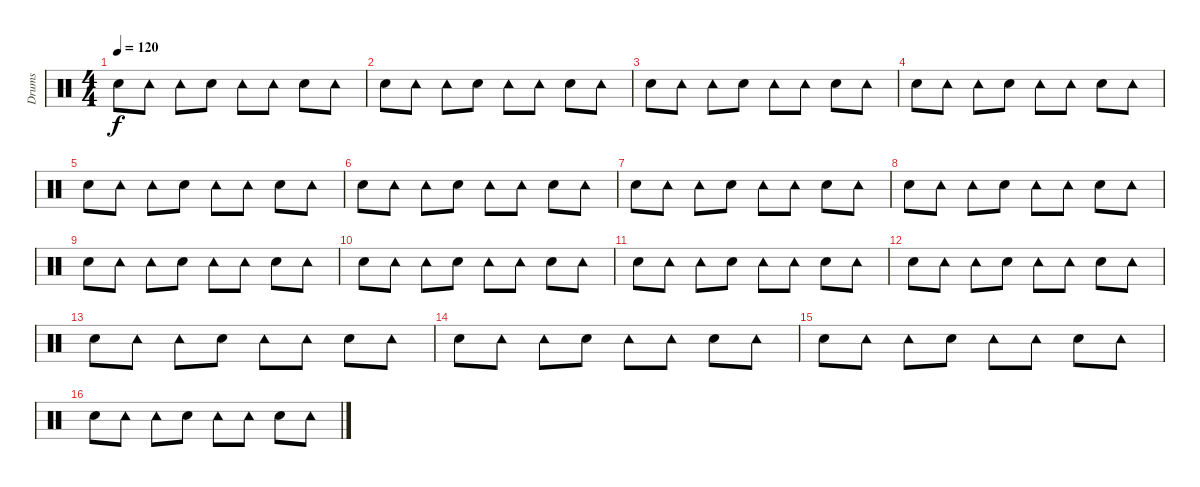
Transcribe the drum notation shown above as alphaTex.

\track ("Drums" "Drums") {instrument percussion}
\staff {score}
\articulation defaults
\ts (4 4)
\tempo 120
\clef neutral
\ks c "Electric Snare (hit)".8{dy f} "Tambourine (hit)".8 "Tambourine (hit)".8 "Electric Snare (hit)".8 "Tambourine (hit)".8 "Tambourine (hit)".8 "Electric Snare (hit)".8 "Tambourine (hit)".8
|
"Electric Snare (hit)".8 "Tambourine (hit)".8 "Tambourine (hit)".8 "Electric Snare (hit)".8 "Tambourine (hit)".8 "Tambourine (hit)".8 "Electric Snare (hit)".8 "Tambourine (hit)".8 |
"Electric Snare (hit)".8 "Tambourine (hit)".8 "Tambourine (hit)".8 "Electric Snare (hit)".8 "Tambourine (hit)".8 "Tambourine (hit)".8 "Electric Snare (hit)".8 "Tambourine (hit)".8 |
"Electric Snare (hit)".8 "Tambourine (hit)".8 "Tambourine (hit)".8 "Electric Snare (hit)".8 "Tambourine (hit)".8 "Tambourine (hit)".8 "Electric Snare (hit)".8 "Tambourine (hit)".8 |
"Electric Snare (hit)".8 "Tambourine (hit)".8 "Tambourine (hit)".8 "Electric Snare (hit)".8 "Tambourine (hit)".8 "Tambourine (hit)".8 "Electric Snare (hit)".8 "Tambourine (hit)".8 |
"Electric Snare (hit)".8 "Tambourine (hit)".8 "Tambourine (hit)".8 "Electric Snare (hit)".8 "Tambourine (hit)".8 "Tambourine (hit)".8 "Electric Snare (hit)".8 "Tambourine (hit)".8 |
"Electric Snare (hit)".8 "Tambourine (hit)".8 "Tambourine (hit)".8 "Electric Snare (hit)".8 "Tambourine (hit)".8 "Tambourine (hit)".8 "Electric Snare (hit)".8 "Tambourine (hit)".8 |
"Electric Snare (hit)".8 "Tambourine (hit)".8 "Tambourine (hit)".8 "Electric Snare (hit)".8 "Tambourine (hit)".8 "Tambourine (hit)".8 "Electric Snare (hit)".8 "Tambourine (hit)".8 |
"Electric Snare (hit)".8 "Tambourine (hit)".8 "Tambourine (hit)".8 "Electric Snare (hit)".8 "Tambourine (hit)".8 "Tambourine (hit)".8 "Electric Snare (hit)".8 "Tambourine (hit)".8 |
"Electric Snare (hit)".8 "Tambourine (hit)".8 "Tambourine (hit)".8 "Electric Snare (hit)".8 "Tambourine (hit)".8 "Tambourine (hit)".8 "Electric Snare (hit)".8 "Tambourine (hit)".8 |
"Electric Snare (hit)".8 "Tambourine (hit)".8 "Tambourine (hit)".8 "Electric Snare (hit)".8 "Tambourine (hit)".8 "Tambourine (hit)".8 "Electric Snare (hit)".8 "Tambourine (hit)".8 |
"Electric Snare (hit)".8 "Tambourine (hit)".8 "Tambourine (hit)".8 "Electric Snare (hit)".8 "Tambourine (hit)".8 "Tambourine (hit)".8 "Electric Snare (hit)".8 "Tambourine (hit)".8 |
"Electric Snare (hit)".8 "Tambourine (hit)".8 "Tambourine (hit)".8 "Electric Snare (hit)".8 "Tambourine (hit)".8 "Tambourine (hit)".8 "Electric Snare (hit)".8 "Tambourine (hit)".8 |
"Electric Snare (hit)".8 "Tambourine (hit)".8 "Tambourine (hit)".8 "Electric Snare (hit)".8 "Tambourine (hit)".8 "Tambourine (hit)".8 "Electric Snare (hit)".8 "Tambourine (hit)".8 |
"Electric Snare (hit)".8 "Tambourine (hit)".8 "Tambourine (hit)".8 "Electric Snare (hit)".8 "Tambourine (hit)".8 "Tambourine (hit)".8 "Electric Snare (hit)".8 "Tambourine (hit)".8 |
"Electric Snare (hit)".8 "Tambourine (hit)".8 "Tambourine (hit)".8 "Electric Snare (hit)".8 "Tambourine (hit)".8 "Tambourine (hit)".8 "Electric Snare (hit)".8 "Tambourine (hit)".8
